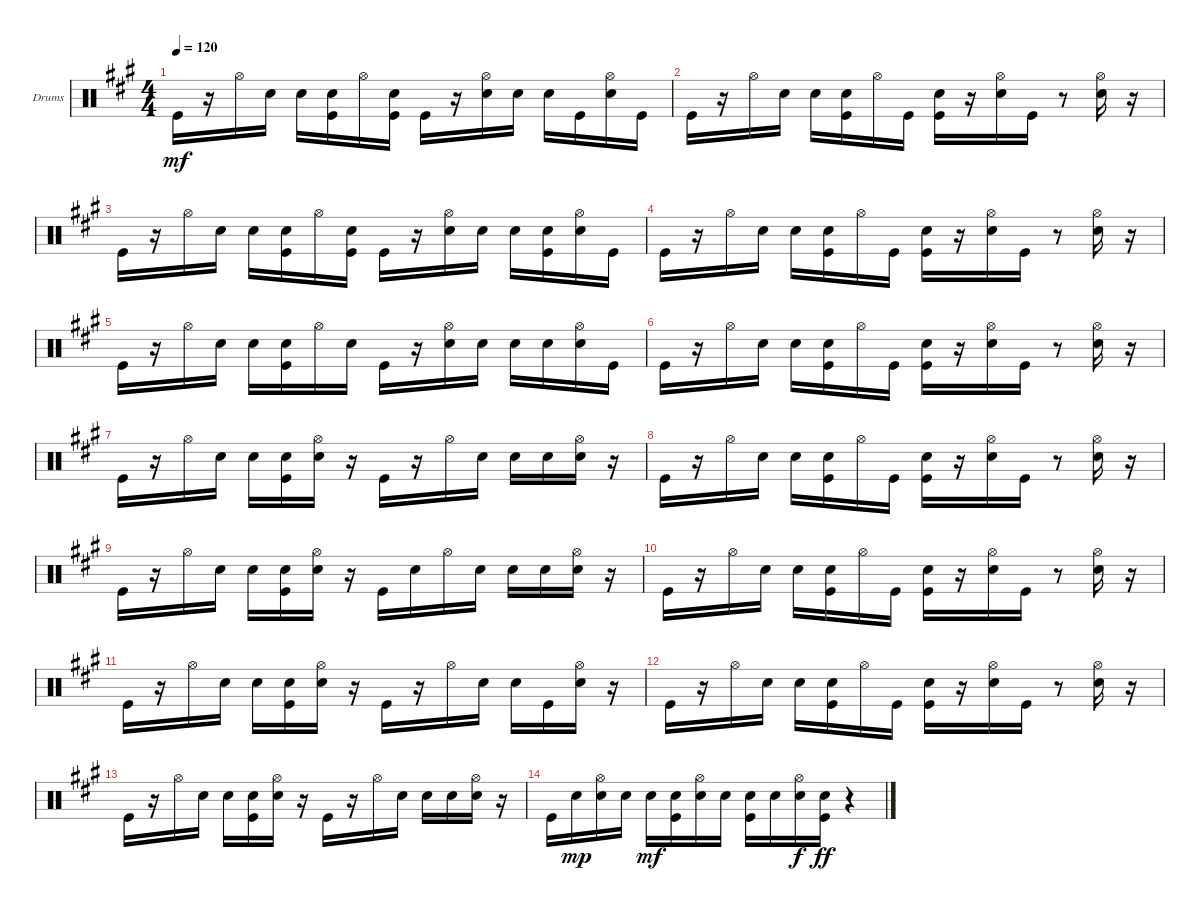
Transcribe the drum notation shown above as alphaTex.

\bracketExtendMode groupsimilarinstruments
\firstSystemTrackNameOrientation horizontal
\otherSystemsTrackNameOrientation horizontal
\track ("Drumkit" "Drums") {instrument percussion}
\staff {score}
\articulation defaults
\ts (4 4)
\tempo 120
\clef neutral
\ks a "Kick (hit)".16{dy mf}
r.16 "Hi-Hat (open)".16 "Snare (hit) 2".16 "Snare (hit) 2".16 ("Kick (hit)" "Snare (hit) 2").16 "Hi-Hat (open)".16 ("Kick (hit)" "Snare (hit) 2").16 "Kick (hit)".16 r.16 ("Hi-Hat (open)" "Snare (hit) 2").16 "Snare (hit) 2".16 "Snare (hit) 2".16 "Kick (hit)".16 ("Hi-Hat (open)" "Snare (hit) 2").16 "Kick (hit)".16 |
"Kick (hit)".16 r.16 "Hi-Hat (open)".16 "Snare (hit) 2".16 "Snare (hit) 2".16 ("Kick (hit)" "Snare (hit) 2").16 "Hi-Hat (open)".16 "Kick (hit)".16 ("Kick (hit)" "Snare (hit) 2").16 r.16 ("Snare (hit) 2" "Hi-Hat (open)").16 "Kick (hit)".16 r.8 ("Snare (hit) 2" "Hi-Hat (open)").16 r.16 |
"Kick (hit)".16 r.16 "Hi-Hat (open)".16 "Snare (hit) 2".16 "Snare (hit) 2".16 ("Kick (hit)" "Snare (hit) 2").16 "Hi-Hat (open)".16 ("Kick (hit)" "Snare (hit) 2").16 "Kick (hit)".16 r.16 ("Hi-Hat (open)" "Snare (hit) 2").16 "Snare (hit) 2".16 "Snare (hit) 2".16 ("Kick (hit)" "Snare (hit) 2").16 ("Hi-Hat (open)" "Snare (hit) 2").16 "Kick (hit)".16 |
"Kick (hit)".16 r.16 "Hi-Hat (open)".16 "Snare (hit) 2".16 "Snare (hit) 2".16 ("Kick (hit)" "Snare (hit) 2").16 "Hi-Hat (open)".16 "Kick (hit)".16 ("Kick (hit)" "Snare (hit) 2").16 r.16 ("Snare (hit) 2" "Hi-Hat (open)").16 "Kick (hit)".16 r.8 ("Snare (hit) 2" "Hi-Hat (open)").16 r.16 |
"Kick (hit)".16 r.16 "Hi-Hat (open)".16 "Snare (hit) 2".16 "Snare (hit) 2".16 ("Kick (hit)" "Snare (hit) 2").16 "Hi-Hat (open)".16 "Snare (hit) 2".16 "Kick (hit)".16 r.16 ("Hi-Hat (open)" "Snare (hit) 2").16 "Snare (hit) 2".16 "Snare (hit) 2".16 "Snare (hit) 2".16 ("Hi-Hat (open)" "Snare (hit) 2").16 "Kick (hit)".16 |
"Kick (hit)".16 r.16 "Hi-Hat (open)".16 "Snare (hit) 2".16 "Snare (hit) 2".16 ("Kick (hit)" "Snare (hit) 2").16 "Hi-Hat (open)".16 "Kick (hit)".16 ("Kick (hit)" "Snare (hit) 2").16 r.16 ("Snare (hit) 2" "Hi-Hat (open)").16 "Kick (hit)".16 r.8 ("Snare (hit) 2" "Hi-Hat (open)").16 r.16 |
"Kick (hit)".16 r.16 "Hi-Hat (open)".16 "Snare (hit) 2".16 "Snare (hit) 2".16 ("Kick (hit)" "Snare (hit) 2").16 ("Hi-Hat (open)" "Snare (hit) 2").16 r.16 "Kick (hit)".16 r.16 "Hi-Hat (open)".16 "Snare (hit) 2".16 "Snare (hit) 2".16 "Snare (hit) 2".16 ("Hi-Hat (open)" "Snare (hit) 2").16 r.16 |
"Kick (hit)".16 r.16 "Hi-Hat (open)".16 "Snare (hit) 2".16 "Snare (hit) 2".16 ("Kick (hit)" "Snare (hit) 2").16 "Hi-Hat (open)".16 "Kick (hit)".16 ("Kick (hit)" "Snare (hit) 2").16 r.16 ("Snare (hit) 2" "Hi-Hat (open)").16 "Kick (hit)".16 r.8 ("Snare (hit) 2" "Hi-Hat (open)").16 r.16 |
"Kick (hit)".16 r.16 "Hi-Hat (open)".16 "Snare (hit) 2".16 "Snare (hit) 2".16 ("Kick (hit)" "Snare (hit) 2").16 ("Hi-Hat (open)" "Snare (hit) 2").16 r.16 "Kick (hit)".16 "Snare (hit) 2".16 "Hi-Hat (open)".16 "Snare (hit) 2".16 "Snare (hit) 2".16 "Snare (hit) 2".16 ("Hi-Hat (open)" "Snare (hit) 2").16 r.16 |
"Kick (hit)".16 r.16 "Hi-Hat (open)".16 "Snare (hit) 2".16 "Snare (hit) 2".16 ("Kick (hit)" "Snare (hit) 2").16 "Hi-Hat (open)".16 "Kick (hit)".16 ("Kick (hit)" "Snare (hit) 2").16 r.16 ("Snare (hit) 2" "Hi-Hat (open)").16 "Kick (hit)".16 r.8 ("Snare (hit) 2" "Hi-Hat (open)").16 r.16 |
"Kick (hit)".16 r.16 "Hi-Hat (open)".16 "Snare (hit) 2".16 "Snare (hit) 2".16 ("Kick (hit)" "Snare (hit) 2").16 ("Hi-Hat (open)" "Snare (hit) 2").16 r.16 "Kick (hit)".16 r.16 "Hi-Hat (open)".16 "Snare (hit) 2".16 "Snare (hit) 2".16 "Kick (hit)".16 ("Hi-Hat (open)" "Snare (hit) 2").16 r.16 |
"Kick (hit)".16 r.16 "Hi-Hat (open)".16 "Snare (hit) 2".16 "Snare (hit) 2".16 ("Kick (hit)" "Snare (hit) 2").16 "Hi-Hat (open)".16 "Kick (hit)".16 ("Kick (hit)" "Snare (hit) 2").16 r.16 ("Snare (hit) 2" "Hi-Hat (open)").16 "Kick (hit)".16 r.8 ("Snare (hit) 2" "Hi-Hat (open)").16 r.16 |
"Kick (hit)".16 r.16 "Hi-Hat (open)".16 "Snare (hit) 2".16 "Snare (hit) 2".16 ("Kick (hit)" "Snare (hit) 2").16 ("Hi-Hat (open)" "Snare (hit) 2").16 r.16 "Kick (hit)".16 r.16 "Hi-Hat (open)".16 "Snare (hit) 2".16 "Snare (hit) 2".16 "Snare (hit) 2".16 ("Hi-Hat (open)" "Snare (hit) 2").16 r.16 |
"Kick (hit)".16 "Snare (hit) 2".16{dy mp} ("Hi-Hat (open)" "Snare (hit) 2").16 "Snare (hit) 2".16 "Snare (hit) 2".16{dy mf} ("Kick (hit)" "Snare (hit) 2").16 ("Hi-Hat (open)" "Snare (hit) 2").16 "Snare (hit) 2".16 ("Kick (hit)" "Snare (hit) 2").16 "Snare (hit) 2".16 ("Snare (hit) 2" "Hi-Hat (open)").16{dy f} ("Kick (hit)" "Snare (hit) 2").16{dy ff} r.4
